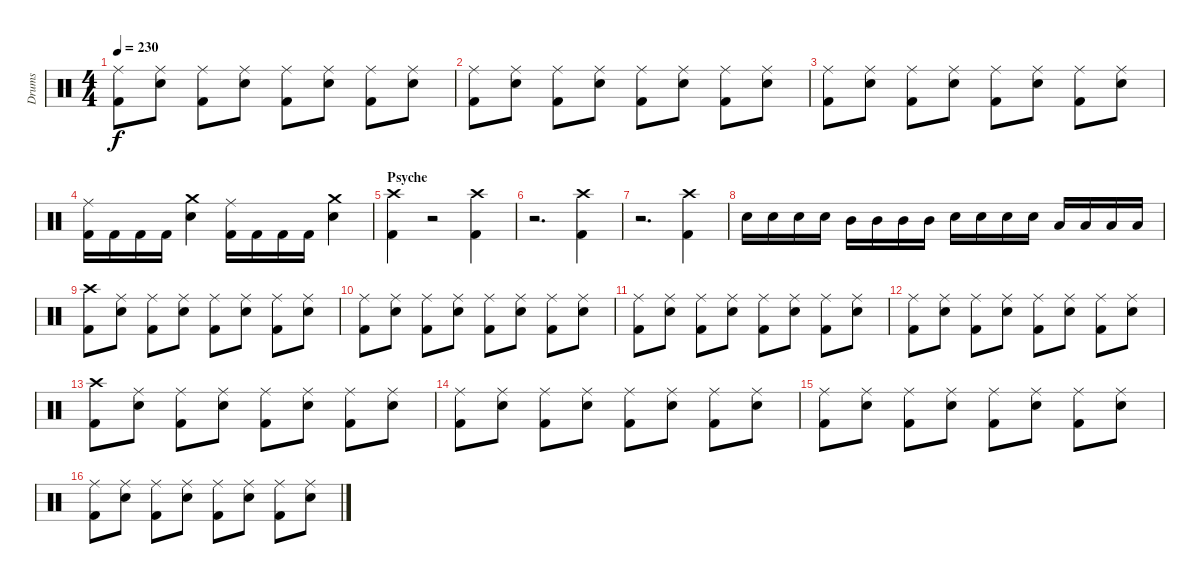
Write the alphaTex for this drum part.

\track ("Drums" "Drums") {instrument percussion}
\staff {score}
\articulation defaults
\ts (4 4)
\tempo 230
\clef neutral
\ks c
("Ride (middle)" "Kick (hit) 2").8{dy f} ("Ride (middle)" "Snare (hit) 2").8 ("Ride (middle)" "Kick (hit) 2").8 ("Ride (middle)" "Snare (hit) 2").8 ("Ride (middle)" "Kick (hit) 2").8 ("Ride (middle)" "Snare (hit) 2").8 ("Ride (middle)" "Kick (hit) 2").8 ("Ride (middle)" "Snare (hit) 2").8 |
("Ride (middle)" "Kick (hit) 2").8 ("Ride (middle)" "Snare (hit) 2").8 ("Ride (middle)" "Kick (hit) 2").8 ("Ride (middle)" "Snare (hit) 2").8 ("Ride (middle)" "Kick (hit) 2").8 ("Ride (middle)" "Snare (hit) 2").8 ("Ride (middle)" "Kick (hit) 2").8 ("Ride (middle)" "Snare (hit) 2").8 |
("Ride (middle)" "Kick (hit) 2").8 ("Ride (middle)" "Snare (hit) 2").8 ("Ride (middle)" "Kick (hit) 2").8 ("Ride (middle)" "Snare (hit) 2").8 ("Ride (middle)" "Kick (hit) 2").8 ("Ride (middle)" "Snare (hit) 2").8 ("Ride (middle)" "Kick (hit) 2").8 ("Ride (middle)" "Snare (hit) 2").8 |
\section ("" "")
("Ride (middle)" "Kick (hit) 2").16 "Kick (hit) 2".16 "Kick (hit) 2".16 "Kick (hit) 2".16 ("Crash medium (hit)" "Snare (hit) 2").4 ("Ride (middle)" "Kick (hit) 2").16 "Kick (hit) 2".16 "Kick (hit) 2".16 "Kick (hit) 2".16 ("Crash medium (hit)" "Snare (hit) 2").4 |
\section ("" "Psyche")
("Crash high (hit)" "Kick (hit) 2").4 r.2 ("Crash high (hit)" "Kick (hit) 2").4 |
r.2{d} ("Crash high (hit)" "Kick (hit) 2").4 |
r.2{d} ("Crash high (hit)" "Kick (hit) 2").4 |
"Snare (hit) 2".16 "Snare (hit) 2".16 "Snare (hit) 2".16 "Snare (hit) 2".16 "Mid Tom (hit)".16 "Mid Tom (hit)".16 "Mid Tom (hit)".16 "Mid Tom (hit)".16 "Snare (hit) 2".16 "Snare (hit) 2".16 "Snare (hit) 2".16 "Snare (hit) 2".16 "Low Tom (hit)".16 "Low Tom (hit)".16 "Low Tom (hit)".16 "Low Tom (hit)".16 |
("Crash high (hit)" "Kick (hit) 2").8 ("Ride (middle)" "Snare (hit) 2").8 ("Ride (middle)" "Kick (hit) 2").8 ("Ride (middle)" "Snare (hit) 2").8 ("Ride (middle)" "Kick (hit) 2").8 ("Ride (middle)" "Snare (hit) 2").8 ("Ride (middle)" "Kick (hit) 2").8 ("Ride (middle)" "Snare (hit) 2").8 |
("Ride (middle)" "Kick (hit) 2").8 ("Ride (middle)" "Snare (hit) 2").8 ("Ride (middle)" "Kick (hit) 2").8 ("Ride (middle)" "Snare (hit) 2").8 ("Ride (middle)" "Kick (hit) 2").8 ("Ride (middle)" "Snare (hit) 2").8 ("Ride (middle)" "Kick (hit) 2").8 ("Ride (middle)" "Snare (hit) 2").8 |
("Ride (middle)" "Kick (hit) 2").8 ("Ride (middle)" "Snare (hit) 2").8 ("Ride (middle)" "Kick (hit) 2").8 ("Ride (middle)" "Snare (hit) 2").8 ("Ride (middle)" "Kick (hit) 2").8 ("Ride (middle)" "Snare (hit) 2").8 ("Ride (middle)" "Kick (hit) 2").8 ("Ride (middle)" "Snare (hit) 2").8 |
("Ride (middle)" "Kick (hit) 2").8 ("Ride (middle)" "Snare (hit) 2").8 ("Ride (middle)" "Kick (hit) 2").8 ("Ride (middle)" "Snare (hit) 2").8 ("Ride (middle)" "Kick (hit) 2").8 ("Ride (middle)" "Snare (hit) 2").8 ("Ride (middle)" "Kick (hit) 2").8 ("Ride (middle)" "Snare (hit) 2").8 |
("Crash high (hit)" "Kick (hit) 2").8 ("Ride (middle)" "Snare (hit) 2").8 ("Ride (middle)" "Kick (hit) 2").8 ("Ride (middle)" "Snare (hit) 2").8 ("Ride (middle)" "Kick (hit) 2").8 ("Ride (middle)" "Snare (hit) 2").8 ("Ride (middle)" "Kick (hit) 2").8 ("Ride (middle)" "Snare (hit) 2").8 |
("Ride (middle)" "Kick (hit) 2").8 ("Ride (middle)" "Snare (hit) 2").8 ("Ride (middle)" "Kick (hit) 2").8 ("Ride (middle)" "Snare (hit) 2").8 ("Ride (middle)" "Kick (hit) 2").8 ("Ride (middle)" "Snare (hit) 2").8 ("Ride (middle)" "Kick (hit) 2").8 ("Ride (middle)" "Snare (hit) 2").8 |
("Ride (middle)" "Kick (hit) 2").8 ("Ride (middle)" "Snare (hit) 2").8 ("Ride (middle)" "Kick (hit) 2").8 ("Ride (middle)" "Snare (hit) 2").8 ("Ride (middle)" "Kick (hit) 2").8 ("Ride (middle)" "Snare (hit) 2").8 ("Ride (middle)" "Kick (hit) 2").8 ("Ride (middle)" "Snare (hit) 2").8 |
("Ride (middle)" "Kick (hit) 2").8 ("Ride (middle)" "Snare (hit) 2").8 ("Ride (middle)" "Kick (hit) 2").8 ("Ride (middle)" "Snare (hit) 2").8 ("Ride (middle)" "Kick (hit) 2").8 ("Ride (middle)" "Snare (hit) 2").8 ("Ride (middle)" "Kick (hit) 2").8 ("Ride (middle)" "Snare (hit) 2").8
